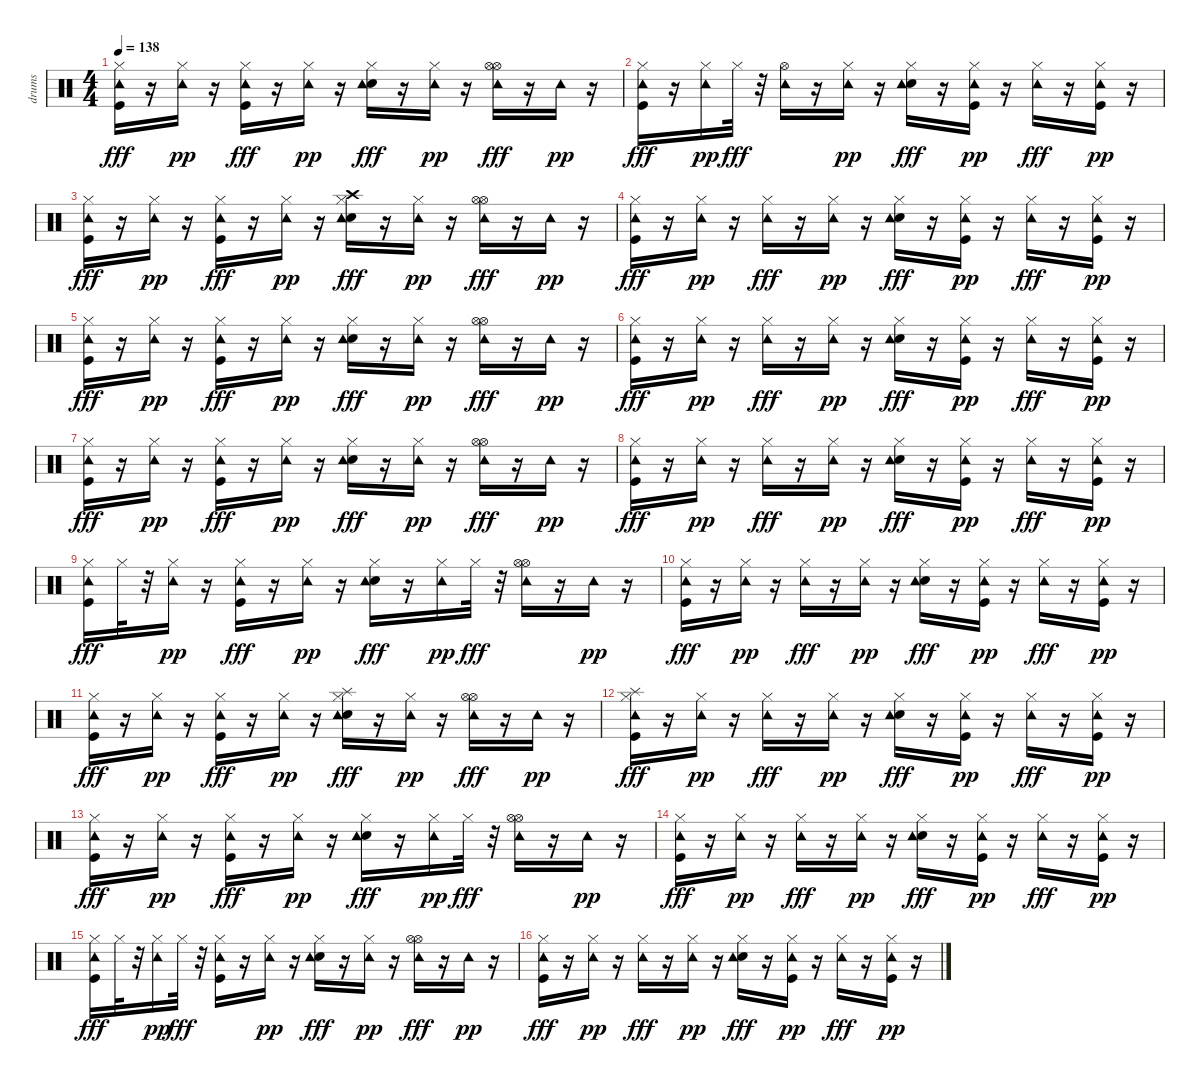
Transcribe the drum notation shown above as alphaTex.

\track ("drums" "drums") {instrument percussion}
\staff {score}
\articulation defaults
\ts (4 4)
\tempo 138
\clef neutral
\ks c
("Hi-Hat (closed)" "Kick (hit)" "Tambourine (hit)").16{dy fff} r.16 ("Hi-Hat (closed)" "Tambourine (hit)").16{dy pp} r.16 ("Hi-Hat (closed)" "Kick (hit)" "Tambourine (hit)").16{dy fff} r.16 ("Hi-Hat (closed)" "Tambourine (hit)").16{dy pp} r.16 ("Metronome (bell)" "Hi-Hat (closed)" "Tambourine (hit)").16{dy fff} r.16 ("Hi-Hat (closed)" "Tambourine (hit)").16{dy pp} r.16 ("Hi-Hat (open)" "Hi-Hat (open)" "Tambourine (hit)").16{dy fff} r.16 "Tambourine (hit)".16{dy pp} r.16 |
("Hi-Hat (closed)" "Kick (hit)" "Tambourine (hit)").16{dy fff} r.16 ("Hi-Hat (closed)" "Tambourine (hit)").16{dy pp} "Hi-Hat (closed)".32{dy fff} r.32 ("Hi-Hat (open)" "Tambourine (hit)").16 r.16 ("Hi-Hat (closed)" "Tambourine (hit)").16{dy pp} r.16 ("Metronome (bell)" "Hi-Hat (closed)" "Tambourine (hit)").16{dy fff} r.16 ("Hi-Hat (closed)" "Kick (hit)" "Tambourine (hit)").16{dy pp} r.16 ("Hi-Hat (closed)" "Tambourine (hit)").16{dy fff} r.16 ("Hi-Hat (closed)" "Kick (hit)" "Tambourine (hit)").16{dy pp} r.16 |
("Hi-Hat (closed)" "Kick (hit)" "Tambourine (hit)").16{dy fff} r.16 ("Hi-Hat (closed)" "Tambourine (hit)").16{dy pp} r.16 ("Hi-Hat (closed)" "Kick (hit)" "Tambourine (hit)").16{dy fff} r.16 ("Hi-Hat (closed)" "Tambourine (hit)").16{dy pp} r.16 ("Crash high (hit)" "Metronome (bell)" "Hi-Hat (closed)" "Tambourine (hit)").16{dy fff} r.16 ("Hi-Hat (closed)" "Tambourine (hit)").16{dy pp} r.16 ("Hi-Hat (open)" "Hi-Hat (open)" "Tambourine (hit)").16{dy fff} r.16 "Tambourine (hit)".16{dy pp} r.16 |
("Hi-Hat (closed)" "Kick (hit)" "Tambourine (hit)").16{dy fff} r.16 ("Hi-Hat (closed)" "Tambourine (hit)").16{dy pp} r.16 ("Hi-Hat (closed)" "Tambourine (hit)").16{dy fff} r.16 ("Hi-Hat (closed)" "Tambourine (hit)").16{dy pp} r.16 ("Metronome (bell)" "Hi-Hat (closed)" "Tambourine (hit)").16{dy fff} r.16 ("Hi-Hat (closed)" "Kick (hit)" "Tambourine (hit)").16{dy pp} r.16 ("Hi-Hat (closed)" "Tambourine (hit)").16{dy fff} r.16 ("Hi-Hat (closed)" "Kick (hit)" "Tambourine (hit)").16{dy pp} r.16 |
("Hi-Hat (closed)" "Kick (hit)" "Tambourine (hit)").16{dy fff} r.16 ("Hi-Hat (closed)" "Tambourine (hit)").16{dy pp} r.16 ("Hi-Hat (closed)" "Kick (hit)" "Tambourine (hit)").16{dy fff} r.16 ("Hi-Hat (closed)" "Tambourine (hit)").16{dy pp} r.16 ("Metronome (bell)" "Hi-Hat (closed)" "Tambourine (hit)").16{dy fff} r.16 ("Hi-Hat (closed)" "Tambourine (hit)").16{dy pp} r.16 ("Hi-Hat (open)" "Hi-Hat (open)" "Tambourine (hit)").16{dy fff} r.16 "Tambourine (hit)".16{dy pp} r.16 |
("Hi-Hat (closed)" "Kick (hit)" "Tambourine (hit)").16{dy fff} r.16 ("Hi-Hat (closed)" "Tambourine (hit)").16{dy pp} r.16 ("Hi-Hat (closed)" "Tambourine (hit)").16{dy fff} r.16 ("Hi-Hat (closed)" "Tambourine (hit)").16{dy pp} r.16 ("Metronome (bell)" "Hi-Hat (closed)" "Tambourine (hit)").16{dy fff} r.16 ("Hi-Hat (closed)" "Kick (hit)" "Tambourine (hit)").16{dy pp} r.16 ("Hi-Hat (closed)" "Tambourine (hit)").16{dy fff} r.16 ("Hi-Hat (closed)" "Kick (hit)" "Tambourine (hit)").16{dy pp} r.16 |
("Hi-Hat (closed)" "Kick (hit)" "Tambourine (hit)").16{dy fff} r.16 ("Hi-Hat (closed)" "Tambourine (hit)").16{dy pp} r.16 ("Hi-Hat (closed)" "Kick (hit)" "Tambourine (hit)").16{dy fff} r.16 ("Hi-Hat (closed)" "Tambourine (hit)").16{dy pp} r.16 ("Metronome (bell)" "Hi-Hat (closed)" "Tambourine (hit)").16{dy fff} r.16 ("Hi-Hat (closed)" "Tambourine (hit)").16{dy pp} r.16 ("Hi-Hat (open)" "Hi-Hat (open)" "Tambourine (hit)").16{dy fff} r.16 "Tambourine (hit)".16{dy pp} r.16 |
("Hi-Hat (closed)" "Kick (hit)" "Tambourine (hit)").16{dy fff} r.16 ("Hi-Hat (closed)" "Tambourine (hit)").16{dy pp} r.16 ("Hi-Hat (closed)" "Tambourine (hit)").16{dy fff} r.16 ("Hi-Hat (closed)" "Tambourine (hit)").16{dy pp} r.16 ("Metronome (bell)" "Hi-Hat (closed)" "Tambourine (hit)").16{dy fff} r.16 ("Hi-Hat (closed)" "Kick (hit)" "Tambourine (hit)").16{dy pp} r.16 ("Hi-Hat (closed)" "Tambourine (hit)").16{dy fff} r.16 ("Hi-Hat (closed)" "Kick (hit)" "Tambourine (hit)").16{dy pp} r.16 |
("Hi-Hat (closed)" "Kick (hit)" "Tambourine (hit)").16{dy fff} "Hi-Hat (closed)".32 r.32 ("Hi-Hat (closed)" "Tambourine (hit)").16{dy pp} r.16 ("Hi-Hat (closed)" "Kick (hit)" "Tambourine (hit)").16{dy fff} r.16 ("Hi-Hat (closed)" "Tambourine (hit)").16{dy pp} r.16 ("Metronome (bell)" "Hi-Hat (closed)" "Tambourine (hit)").16{dy fff} r.16 ("Hi-Hat (closed)" "Tambourine (hit)").16{dy pp} "Hi-Hat (closed)".32{dy fff} r.32 ("Hi-Hat (open)" "Hi-Hat (open)" "Tambourine (hit)").16 r.16 "Tambourine (hit)".16{dy pp} r.16 |
("Hi-Hat (closed)" "Kick (hit)" "Tambourine (hit)").16{dy fff} r.16 ("Hi-Hat (closed)" "Tambourine (hit)").16{dy pp} r.16 ("Hi-Hat (closed)" "Tambourine (hit)").16{dy fff} r.16 ("Hi-Hat (closed)" "Tambourine (hit)").16{dy pp} r.16 ("Metronome (bell)" "Hi-Hat (closed)" "Tambourine (hit)").16{dy fff} r.16 ("Hi-Hat (closed)" "Kick (hit)" "Tambourine (hit)").16{dy pp} r.16 ("Hi-Hat (closed)" "Tambourine (hit)").16{dy fff} r.16 ("Hi-Hat (closed)" "Kick (hit)" "Tambourine (hit)").16{dy pp} r.16 |
("Hi-Hat (closed)" "Kick (hit)" "Tambourine (hit)").16{dy fff} r.16 ("Hi-Hat (closed)" "Tambourine (hit)").16{dy pp} r.16 ("Hi-Hat (closed)" "Kick (hit)" "Tambourine (hit)").16{dy fff} r.16 ("Hi-Hat (closed)" "Tambourine (hit)").16{dy pp} r.16 ("Splash (hit)" "Metronome (bell)" "Hi-Hat (closed)" "Tambourine (hit)").16{dy fff} r.16 ("Hi-Hat (closed)" "Tambourine (hit)").16{dy pp} r.16 ("Hi-Hat (open)" "Hi-Hat (open)" "Tambourine (hit)").16{dy fff} r.16 "Tambourine (hit)".16{dy pp} r.16 |
("Splash (hit)" "Hi-Hat (closed)" "Kick (hit)" "Tambourine (hit)").16{dy fff} r.16 ("Hi-Hat (closed)" "Tambourine (hit)").16{dy pp} r.16 ("Hi-Hat (closed)" "Tambourine (hit)").16{dy fff} r.16 ("Hi-Hat (closed)" "Tambourine (hit)").16{dy pp} r.16 ("Metronome (bell)" "Hi-Hat (closed)" "Tambourine (hit)").16{dy fff} r.16 ("Hi-Hat (closed)" "Kick (hit)" "Tambourine (hit)").16{dy pp} r.16 ("Hi-Hat (closed)" "Tambourine (hit)").16{dy fff} r.16 ("Hi-Hat (closed)" "Kick (hit)" "Tambourine (hit)").16{dy pp} r.16 |
("Hi-Hat (closed)" "Kick (hit)" "Tambourine (hit)").16{dy fff} r.16 ("Hi-Hat (closed)" "Tambourine (hit)").16{dy pp} r.16 ("Hi-Hat (closed)" "Kick (hit)" "Tambourine (hit)").16{dy fff} r.16 ("Hi-Hat (closed)" "Tambourine (hit)").16{dy pp} r.16 ("Metronome (bell)" "Hi-Hat (closed)" "Tambourine (hit)").16{dy fff} r.16 ("Hi-Hat (closed)" "Tambourine (hit)").16{dy pp} "Hi-Hat (closed)".32{dy fff} r.32 ("Hi-Hat (open)" "Hi-Hat (open)" "Tambourine (hit)").16 r.16 "Tambourine (hit)".16{dy pp} r.16 |
("Hi-Hat (closed)" "Kick (hit)" "Tambourine (hit)").16{dy fff} r.16 ("Hi-Hat (closed)" "Tambourine (hit)").16{dy pp} r.16 ("Hi-Hat (closed)" "Tambourine (hit)").16{dy fff} r.16 ("Hi-Hat (closed)" "Tambourine (hit)").16{dy pp} r.16 ("Metronome (bell)" "Hi-Hat (closed)" "Tambourine (hit)").16{dy fff} r.16 ("Hi-Hat (closed)" "Kick (hit)" "Tambourine (hit)").16{dy pp} r.16 ("Hi-Hat (closed)" "Tambourine (hit)").16{dy fff} r.16 ("Hi-Hat (closed)" "Kick (hit)" "Tambourine (hit)").16{dy pp} r.16 |
("Hi-Hat (closed)" "Kick (hit)" "Tambourine (hit)").16{dy fff} "Hi-Hat (closed)".32 r.32 ("Hi-Hat (closed)" "Tambourine (hit)").16{dy pp} "Hi-Hat (closed)".32{dy fff} r.32 ("Hi-Hat (closed)" "Kick (hit)" "Tambourine (hit)").16 r.16 ("Hi-Hat (closed)" "Tambourine (hit)").16{dy pp} r.16 ("Metronome (bell)" "Hi-Hat (closed)" "Tambourine (hit)").16{dy fff} r.16 ("Hi-Hat (closed)" "Tambourine (hit)").16{dy pp} r.16 ("Hi-Hat (open)" "Hi-Hat (open)" "Tambourine (hit)").16{dy fff} r.16 "Tambourine (hit)".16{dy pp} r.16 |
("Hi-Hat (closed)" "Kick (hit)" "Tambourine (hit)").16{dy fff} r.16 ("Hi-Hat (closed)" "Tambourine (hit)").16{dy pp} r.16 ("Hi-Hat (closed)" "Tambourine (hit)").16{dy fff} r.16 ("Hi-Hat (closed)" "Tambourine (hit)").16{dy pp} r.16 ("Metronome (bell)" "Hi-Hat (closed)" "Tambourine (hit)").16{dy fff} r.16 ("Hi-Hat (closed)" "Kick (hit)" "Tambourine (hit)").16{dy pp} r.16 ("Hi-Hat (closed)" "Tambourine (hit)").16{dy fff} r.16 ("Hi-Hat (closed)" "Kick (hit)" "Tambourine (hit)").16{dy pp} r.16
